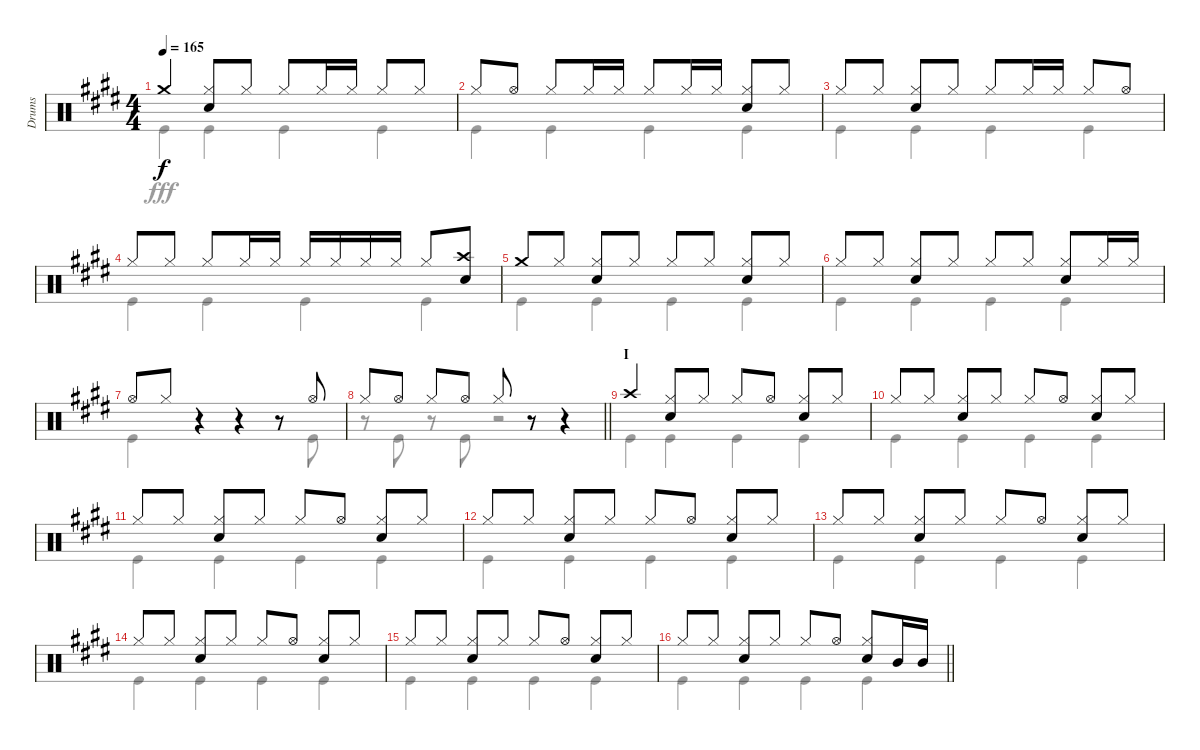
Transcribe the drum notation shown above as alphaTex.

\track ("Drums" "Drums") {instrument percussion}
\staff {score}
\articulation defaults
\voice
\ts (4 4)
\tempo 165
\clef neutral
\ks e "Crash medium (hit)".4{dy f}
("Hi-Hat (closed)" "Snare (hit) 2").8 "Hi-Hat (closed)".8 "Hi-Hat (closed)".8 "Hi-Hat (closed)".16 "Hi-Hat (closed)".16 "Hi-Hat (closed)".8 "Hi-Hat (closed)".8 |
"Hi-Hat (closed)".8 "Hi-Hat (open)".8 "Hi-Hat (closed)".8 "Hi-Hat (closed)".16 "Hi-Hat (closed)".16 "Hi-Hat (closed)".8 "Hi-Hat (closed)".16 "Hi-Hat (closed)".16 ("Hi-Hat (closed)" "Snare (hit) 2").8 "Hi-Hat (closed)".8 |
"Hi-Hat (closed)".8 "Hi-Hat (closed)".8 ("Hi-Hat (closed)" "Snare (hit) 2").8 "Hi-Hat (closed)".8 "Hi-Hat (closed)".8 "Hi-Hat (closed)".16 "Hi-Hat (closed)".16 "Hi-Hat (closed)".8 "Hi-Hat (open)".8 |
"Hi-Hat (closed)".8 "Hi-Hat (closed)".8 "Hi-Hat (closed)".8 "Hi-Hat (closed)".16 "Hi-Hat (closed)".16 "Hi-Hat (closed)".16 "Hi-Hat (closed)".16 "Hi-Hat (closed)".16 "Hi-Hat (closed)".16 "Hi-Hat (closed)".8 ("Crash high (hit)" "Snare (hit) 2").8 |
"Crash medium (hit)".8 "Hi-Hat (closed)".8 ("Hi-Hat (closed)" "Snare (hit) 2").8 "Hi-Hat (closed)".8 "Hi-Hat (closed)".8 "Hi-Hat (closed)".8 ("Hi-Hat (closed)" "Snare (hit) 2").8 "Hi-Hat (closed)".8 |
"Hi-Hat (closed)".8 "Hi-Hat (closed)".8 ("Hi-Hat (closed)" "Snare (hit) 2").8 "Hi-Hat (closed)".8 "Hi-Hat (closed)".8 "Hi-Hat (closed)".8 ("Hi-Hat (closed)" "Snare (hit) 2").8 "Hi-Hat (closed)".16 "Hi-Hat (closed)".16 |
"Hi-Hat (open)".8 "Hi-Hat (closed)".8 r.4 r.4 r.8 "Hi-Hat (open)".8 |
\barLineRight lightlight "Hi-Hat (closed)".8 "Hi-Hat (open)".8 "Hi-Hat (closed)".8 "Hi-Hat (open)".8 "Hi-Hat (closed)".8
r.8 r.4 |
\section ("" "I")
"Crash high (hit)".4 ("Hi-Hat (closed)" "Snare (hit) 2").8 "Hi-Hat (closed)".8 "Hi-Hat (closed)".8 "Hi-Hat (open)".8 ("Hi-Hat (closed)" "Snare (hit) 2").8 "Hi-Hat (closed)".8 |
"Hi-Hat (closed)".8 "Hi-Hat (closed)".8 ("Hi-Hat (closed)" "Snare (hit) 2").8 "Hi-Hat (closed)".8 "Hi-Hat (closed)".8 "Hi-Hat (open)".8 ("Hi-Hat (closed)" "Snare (hit) 2").8 "Hi-Hat (closed)".8 |
"Hi-Hat (closed)".8 "Hi-Hat (closed)".8 ("Hi-Hat (closed)" "Snare (hit) 2").8 "Hi-Hat (closed)".8 "Hi-Hat (closed)".8 "Hi-Hat (open)".8 ("Hi-Hat (closed)" "Snare (hit) 2").8 "Hi-Hat (closed)".8 |
"Hi-Hat (closed)".8 "Hi-Hat (closed)".8 ("Hi-Hat (closed)" "Snare (hit) 2").8 "Hi-Hat (closed)".8 "Hi-Hat (closed)".8 "Hi-Hat (open)".8 ("Hi-Hat (closed)" "Snare (hit) 2").8 "Hi-Hat (closed)".8 |
"Hi-Hat (closed)".8 "Hi-Hat (closed)".8 ("Hi-Hat (closed)" "Snare (hit) 2").8 "Hi-Hat (closed)".8 "Hi-Hat (closed)".8 "Hi-Hat (open)".8 ("Hi-Hat (closed)" "Snare (hit) 2").8 "Hi-Hat (closed)".8 |
"Hi-Hat (closed)".8 "Hi-Hat (closed)".8 ("Hi-Hat (closed)" "Snare (hit) 2").8 "Hi-Hat (closed)".8 "Hi-Hat (closed)".8 "Hi-Hat (open)".8 ("Hi-Hat (closed)" "Snare (hit) 2").8 "Hi-Hat (closed)".8 |
"Hi-Hat (closed)".8 "Hi-Hat (closed)".8 ("Hi-Hat (closed)" "Snare (hit) 2").8 "Hi-Hat (closed)".8 "Hi-Hat (closed)".8 "Hi-Hat (open)".8 ("Hi-Hat (closed)" "Snare (hit) 2").8 "Hi-Hat (closed)".8 |
\barLineRight lightlight "Hi-Hat (closed)".8 "Hi-Hat (closed)".8
("Hi-Hat (closed)" "Snare (hit) 2").8 "Hi-Hat (closed)".8 "Hi-Hat (closed)".8 "Hi-Hat (open)".8 ("Hi-Hat (closed)" "Snare (hit) 2").8 "Mid Tom (hit)".16 "Mid Tom (hit)".16
\voice
\clef neutral
\ottava regular
\simile none
\ks e "Kick (hit)".4{dy fff} "Kick (hit)".4 "Kick (hit)".4 "Kick (hit)".4
|
"Kick (hit)".4 "Kick (hit)".4 "Kick (hit)".4 "Kick (hit)".4 |
"Kick (hit)".4 "Kick (hit)".4 "Kick (hit)".4 "Kick (hit)".4 |
"Kick (hit)".4 "Kick (hit)".4 "Kick (hit)".4 "Kick (hit)".4 |
"Kick (hit)".4 "Kick (hit)".4 "Kick (hit)".4 "Kick (hit)".4 |
"Kick (hit)".4 "Kick (hit)".4 "Kick (hit)".4 "Kick (hit)".4 |
"Kick (hit)".4 r.4 r.4 r.8 "Kick (hit)".8 |
\barLineRight lightlight
r.8 "Kick (hit)".8 r.8 "Kick (hit)".8 r.2 |
"Kick (hit)".4 "Kick (hit)".4 "Kick (hit)".4 "Kick (hit)".4 |
"Kick (hit)".4 "Kick (hit)".4 "Kick (hit)".4 "Kick (hit)".4 |
"Kick (hit)".4 "Kick (hit)".4 "Kick (hit)".4 "Kick (hit)".4 |
"Kick (hit)".4 "Kick (hit)".4 "Kick (hit)".4 "Kick (hit)".4 |
"Kick (hit)".4 "Kick (hit)".4 "Kick (hit)".4 "Kick (hit)".4 |
"Kick (hit)".4 "Kick (hit)".4 "Kick (hit)".4 "Kick (hit)".4 |
"Kick (hit)".4 "Kick (hit)".4 "Kick (hit)".4 "Kick (hit)".4 |
\barLineRight lightlight "Kick (hit)".4 "Kick (hit)".4 "Kick (hit)".4 "Kick (hit)".4
